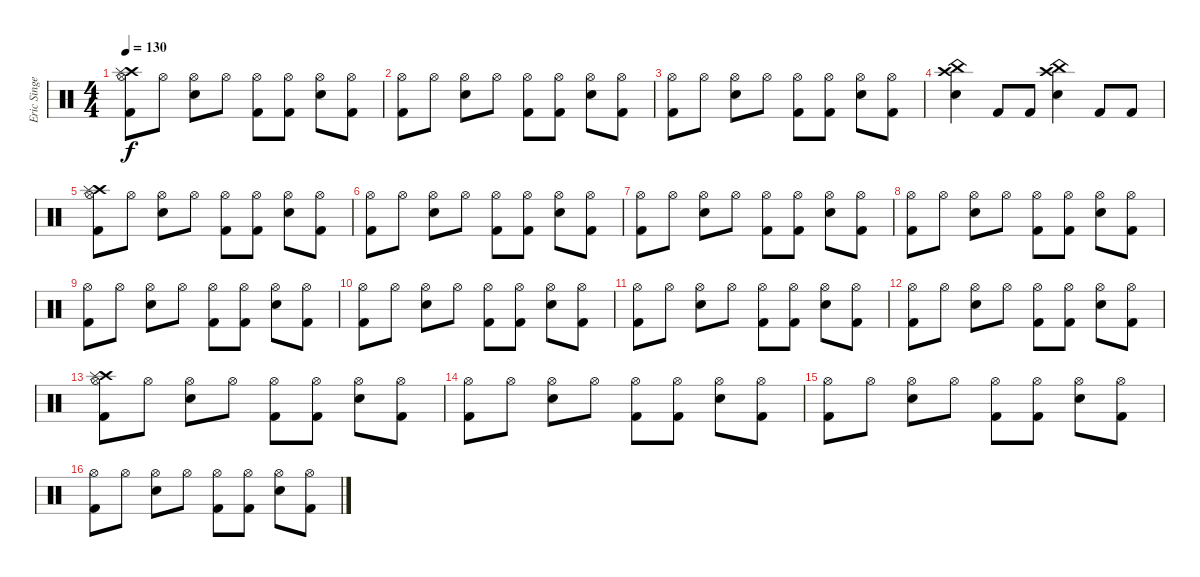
\track ("Eric Singer" "Eric Singe") {instrument percussion}
\staff {score}
\articulation defaults
\ts (4 4)
\tempo 130
\clef neutral
\ks c
("Kick (hit) 2" "Hi-Hat (open)" "Crash high (hit)" "Splash (hit)").8{dy f} "Hi-Hat (open)".8 ("Electric Snare (hit)" "Hi-Hat (open)").8 "Hi-Hat (open)".8 ("Kick (hit) 2" "Hi-Hat (open)").8 ("Kick (hit) 2" "Hi-Hat (open)").8 ("Electric Snare (hit)" "Hi-Hat (open)").8 ("Kick (hit) 2" "Hi-Hat (open)").8 |
("Kick (hit) 2" "Hi-Hat (open)").8 "Hi-Hat (open)".8 ("Electric Snare (hit)" "Hi-Hat (open)").8 "Hi-Hat (open)".8 ("Kick (hit) 2" "Hi-Hat (open)").8 ("Kick (hit) 2" "Hi-Hat (open)").8 ("Electric Snare (hit)" "Hi-Hat (open)").8 ("Kick (hit) 2" "Hi-Hat (open)").8 |
("Kick (hit) 2" "Hi-Hat (open)").8 "Hi-Hat (open)".8 ("Electric Snare (hit)" "Hi-Hat (open)").8 "Hi-Hat (open)".8 ("Kick (hit) 2" "Hi-Hat (open)").8 ("Kick (hit) 2" "Hi-Hat (open)").8 ("Electric Snare (hit)" "Hi-Hat (open)").8 ("Kick (hit) 2" "Hi-Hat (open)").8 |
("Electric Snare (hit)" "Crash high (hit)" "China (hit)").4 "Kick (hit) 2".8 "Kick (hit) 2".8 ("Electric Snare (hit)" "Crash high (hit)" "China (hit)").4 "Kick (hit) 2".8 "Kick (hit) 2".8 |
("Kick (hit) 2" "Hi-Hat (open)" "Crash high (hit)" "Splash (hit)").8 "Hi-Hat (open)".8 ("Electric Snare (hit)" "Hi-Hat (open)").8 "Hi-Hat (open)".8 ("Kick (hit) 2" "Hi-Hat (open)").8 ("Kick (hit) 2" "Hi-Hat (open)").8 ("Electric Snare (hit)" "Hi-Hat (open)").8 ("Kick (hit) 2" "Hi-Hat (open)").8 |
("Kick (hit) 2" "Hi-Hat (open)").8 "Hi-Hat (open)".8 ("Electric Snare (hit)" "Hi-Hat (open)").8 "Hi-Hat (open)".8 ("Kick (hit) 2" "Hi-Hat (open)").8 ("Kick (hit) 2" "Hi-Hat (open)").8 ("Electric Snare (hit)" "Hi-Hat (open)").8 ("Kick (hit) 2" "Hi-Hat (open)").8 |
("Kick (hit) 2" "Hi-Hat (open)").8 "Hi-Hat (open)".8 ("Electric Snare (hit)" "Hi-Hat (open)").8 "Hi-Hat (open)".8 ("Kick (hit) 2" "Hi-Hat (open)").8 ("Kick (hit) 2" "Hi-Hat (open)").8 ("Electric Snare (hit)" "Hi-Hat (open)").8 ("Kick (hit) 2" "Hi-Hat (open)").8 |
("Kick (hit) 2" "Hi-Hat (open)").8 "Hi-Hat (open)".8 ("Electric Snare (hit)" "Hi-Hat (open)").8 "Hi-Hat (open)".8 ("Kick (hit) 2" "Hi-Hat (open)").8 ("Kick (hit) 2" "Hi-Hat (open)").8 ("Electric Snare (hit)" "Hi-Hat (open)").8 ("Kick (hit) 2" "Hi-Hat (open)").8 |
("Kick (hit) 2" "Hi-Hat (open)").8 "Hi-Hat (open)".8 ("Electric Snare (hit)" "Hi-Hat (open)").8 "Hi-Hat (open)".8 ("Kick (hit) 2" "Hi-Hat (open)").8 ("Kick (hit) 2" "Hi-Hat (open)").8 ("Electric Snare (hit)" "Hi-Hat (open)").8 ("Kick (hit) 2" "Hi-Hat (open)").8 |
("Kick (hit) 2" "Hi-Hat (open)").8 "Hi-Hat (open)".8 ("Electric Snare (hit)" "Hi-Hat (open)").8 "Hi-Hat (open)".8 ("Kick (hit) 2" "Hi-Hat (open)").8 ("Kick (hit) 2" "Hi-Hat (open)").8 ("Electric Snare (hit)" "Hi-Hat (open)").8 ("Kick (hit) 2" "Hi-Hat (open)").8 |
("Kick (hit) 2" "Hi-Hat (open)").8 "Hi-Hat (open)".8 ("Electric Snare (hit)" "Hi-Hat (open)").8 "Hi-Hat (open)".8 ("Kick (hit) 2" "Hi-Hat (open)").8 ("Kick (hit) 2" "Hi-Hat (open)").8 ("Electric Snare (hit)" "Hi-Hat (open)").8 ("Kick (hit) 2" "Hi-Hat (open)").8 |
("Kick (hit) 2" "Hi-Hat (open)").8 "Hi-Hat (open)".8 ("Electric Snare (hit)" "Hi-Hat (open)").8 "Hi-Hat (open)".8 ("Kick (hit) 2" "Hi-Hat (open)").8 ("Kick (hit) 2" "Hi-Hat (open)").8 ("Electric Snare (hit)" "Hi-Hat (open)").8 ("Kick (hit) 2" "Hi-Hat (open)").8 |
("Kick (hit) 2" "Hi-Hat (open)" "Crash high (hit)" "Splash (hit)").8 "Hi-Hat (open)".8 ("Electric Snare (hit)" "Hi-Hat (open)").8 "Hi-Hat (open)".8 ("Kick (hit) 2" "Hi-Hat (open)").8 ("Kick (hit) 2" "Hi-Hat (open)").8 ("Electric Snare (hit)" "Hi-Hat (open)").8 ("Kick (hit) 2" "Hi-Hat (open)").8 |
("Kick (hit) 2" "Hi-Hat (open)").8 "Hi-Hat (open)".8 ("Electric Snare (hit)" "Hi-Hat (open)").8 "Hi-Hat (open)".8 ("Kick (hit) 2" "Hi-Hat (open)").8 ("Kick (hit) 2" "Hi-Hat (open)").8 ("Electric Snare (hit)" "Hi-Hat (open)").8 ("Kick (hit) 2" "Hi-Hat (open)").8 |
("Kick (hit) 2" "Hi-Hat (open)").8 "Hi-Hat (open)".8 ("Electric Snare (hit)" "Hi-Hat (open)").8 "Hi-Hat (open)".8 ("Kick (hit) 2" "Hi-Hat (open)").8 ("Kick (hit) 2" "Hi-Hat (open)").8 ("Electric Snare (hit)" "Hi-Hat (open)").8 ("Kick (hit) 2" "Hi-Hat (open)").8 |
("Kick (hit) 2" "Hi-Hat (open)").8 "Hi-Hat (open)".8 ("Electric Snare (hit)" "Hi-Hat (open)").8 "Hi-Hat (open)".8 ("Kick (hit) 2" "Hi-Hat (open)").8 ("Kick (hit) 2" "Hi-Hat (open)").8 ("Electric Snare (hit)" "Hi-Hat (open)").8 ("Kick (hit) 2" "Hi-Hat (open)").8
